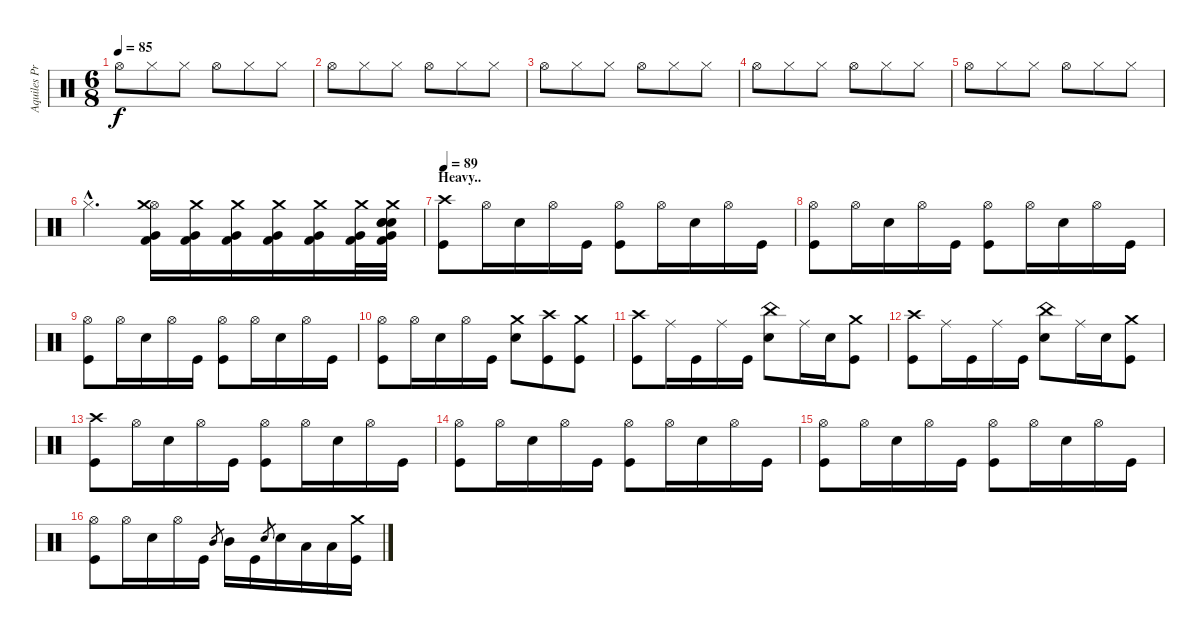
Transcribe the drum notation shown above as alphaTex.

\track ("Aquiles Priester" "Aquiles Pr") {instrument percussion}
\staff {score}
\articulation defaults
\ts (6 8)
\tempo 85
\clef neutral
\ks c "Hi-Hat (open)".8{dy f} "Hi-Hat (closed)".8 "Hi-Hat (closed)".8 "Hi-Hat (open)".8 "Hi-Hat (closed)".8 "Hi-Hat (closed)".8
|
"Hi-Hat (open)".8 "Hi-Hat (closed)".8 "Hi-Hat (closed)".8 "Hi-Hat (open)".8 "Hi-Hat (closed)".8 "Hi-Hat (closed)".8 |
"Hi-Hat (open)".8 "Hi-Hat (closed)".8 "Hi-Hat (closed)".8 "Hi-Hat (open)".8 "Hi-Hat (closed)".8 "Hi-Hat (closed)".8 |
"Hi-Hat (open)".8 "Hi-Hat (closed)".8 "Hi-Hat (closed)".8 "Hi-Hat (open)".8 "Hi-Hat (closed)".8 "Hi-Hat (closed)".8 |
"Hi-Hat (open)".8 "Hi-Hat (closed)".8 "Hi-Hat (closed)".8 "Hi-Hat (open)".8 "Hi-Hat (closed)".8 "Hi-Hat (closed)".8 |
"Hi-Hat (closed)"{hac}.4{d volume 14} ("Hi-Hat (open)" "Crash medium (hit)" "Very Low Tom (hit)" "Kick (hit) 2").16 ("Crash medium (hit)" "Very Low Tom (hit)" "Kick (hit) 2").16 ("Crash medium (hit)" "Very Low Tom (hit)" "Kick (hit) 2").16 ("Crash medium (hit)" "Very Low Tom (hit)" "Kick (hit) 2").16 ("Crash medium (hit)" "Very Low Tom (hit)" "Kick (hit) 2").16 ("Crash medium (hit)" "Very Low Tom (hit)" "Kick (hit) 2").32 ("Crash medium (hit)" "Very Low Tom (hit)" "Electric Snare (hit)" "Electric Snare (hit)" "Electric Snare (hit)" "Kick (hit) 2").32 |
\section ("" "Heavy..")
\tempo 89
("Crash high (hit)" "Kick (hit)").8 "Hi-Hat (open)".16 "Electric Snare (hit)".16 "Hi-Hat (open)".16 "Kick (hit)".16 ("Hi-Hat (open)" "Kick (hit)").8 "Hi-Hat (open)".16 "Electric Snare (hit)".16 "Hi-Hat (open)".16 "Kick (hit)".16 |
("Hi-Hat (open)" "Kick (hit)").8 "Hi-Hat (open)".16 "Electric Snare (hit)".16 "Hi-Hat (open)".16 "Kick (hit)".16 ("Hi-Hat (open)" "Kick (hit)").8 "Hi-Hat (open)".16 "Electric Snare (hit)".16 "Hi-Hat (open)".16 "Kick (hit)".16 |
("Hi-Hat (open)" "Kick (hit)").8 "Hi-Hat (open)".16 "Electric Snare (hit)".16 "Hi-Hat (open)".16 "Kick (hit)".16 ("Hi-Hat (open)" "Kick (hit)").8 "Hi-Hat (open)".16 "Electric Snare (hit)".16 "Hi-Hat (open)".16 "Kick (hit)".16 |
("Hi-Hat (open)" "Kick (hit)").8 "Hi-Hat (open)".16 "Electric Snare (hit)".16 "Hi-Hat (open)".16 "Kick (hit)".16 ("Crash medium (hit)" "Electric Snare (hit)").8 ("Crash high (hit)" "Kick (hit)").8 ("Crash medium (hit)" "Kick (hit)").8 |
("Crash high (hit)" "Kick (hit)").8 "Ride (middle)".16 "Kick (hit)".16 "Ride (middle)".16 "Kick (hit)".16 ("China (hit)" "Electric Snare (hit)").8 "Ride (middle)".16 "Electric Snare (hit)".16 ("Crash medium (hit)" "Kick (hit)").8 |
("Crash high (hit)" "Kick (hit)").8 "Ride (middle)".16 "Kick (hit)".16 "Ride (middle)".16 "Kick (hit)".16 ("China (hit)" "Electric Snare (hit)").8 "Ride (middle)".16 "Electric Snare (hit)".16 ("Crash medium (hit)" "Kick (hit)").8 |
("Crash high (hit)" "Kick (hit)").8 "Hi-Hat (open)".16 "Electric Snare (hit)".16 "Hi-Hat (open)".16 "Kick (hit)".16 ("Hi-Hat (open)" "Kick (hit)").8 "Hi-Hat (open)".16 "Electric Snare (hit)".16 "Hi-Hat (open)".16 "Kick (hit)".16 |
("Hi-Hat (open)" "Kick (hit)").8 "Hi-Hat (open)".16 "Electric Snare (hit)".16 "Hi-Hat (open)".16 "Kick (hit)".16 ("Hi-Hat (open)" "Kick (hit)").8 "Hi-Hat (open)".16 "Electric Snare (hit)".16 "Hi-Hat (open)".16 "Kick (hit)".16 |
("Hi-Hat (open)" "Kick (hit)").8 "Hi-Hat (open)".16 "Electric Snare (hit)".16 "Hi-Hat (open)".16 "Kick (hit)".16 ("Hi-Hat (open)" "Kick (hit)").8 "Hi-Hat (open)".16 "Electric Snare (hit)".16 "Hi-Hat (open)".16 "Kick (hit)".16 |
("Hi-Hat (open)" "Kick (hit)").8 "Hi-Hat (open)".16 "Electric Snare (hit)".16 "Hi-Hat (open)".16 "Kick (hit)".16 "Mid Tom (hit)".8{gr} "Mid Tom (hit)".16 "Kick (hit)".16 "Electric Snare (hit)".8{gr} "Electric Snare (hit)".16 "Low Tom (hit)".16 "Low Tom (hit)".16 ("Crash medium (hit)" "Kick (hit)").16
